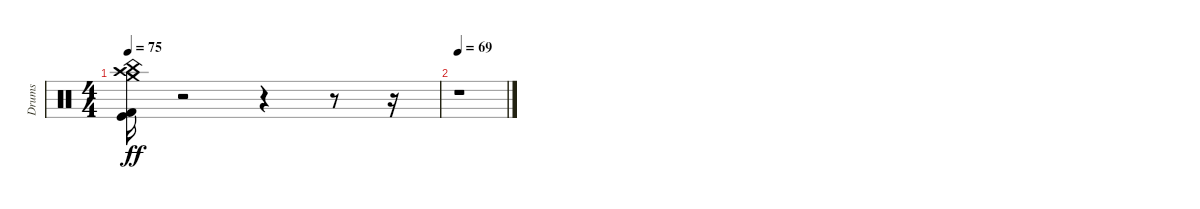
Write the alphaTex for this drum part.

\track ("Drums" "Drums") {instrument percussion}
\staff {score}
\articulation defaults
\ts (4 4)
\tempo 75
\clef neutral
\ks c
("Crash high (hit)" "Kick (hit) 2" "Kick (hit)" "China (hit)" "Crash medium (hit)").16{dy ff} r.2 r.4 r.8 r.16 |
\tempo 69
r.1
